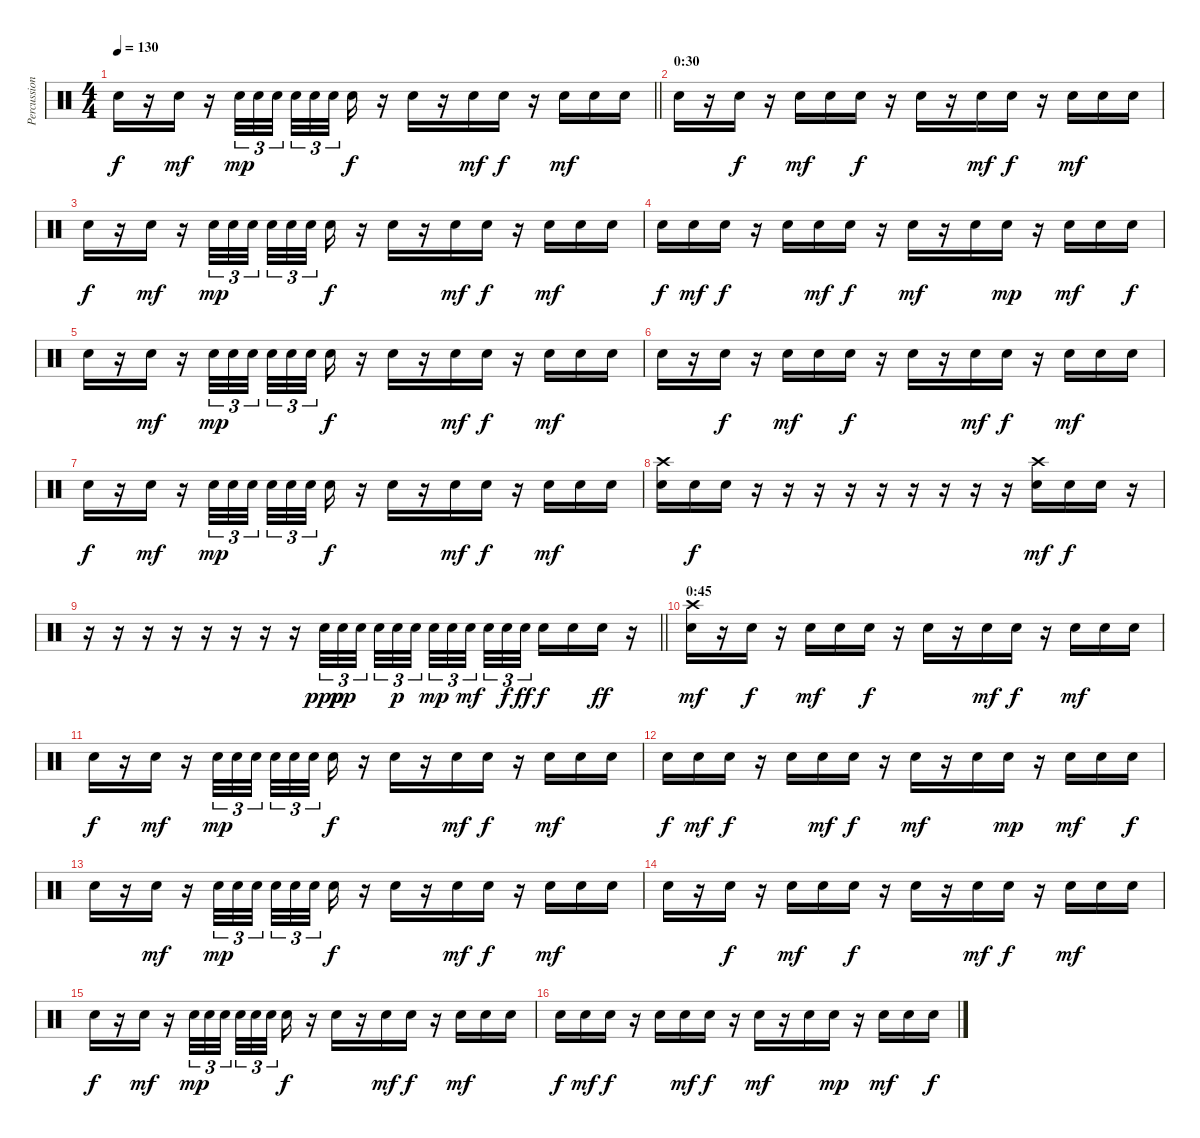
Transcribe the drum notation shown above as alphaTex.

\track ("Percussion" "Percussion") {instrument percussion}
\staff {score}
\articulation defaults
\ts (4 4)
\tempo 130
\clef neutral
\barLineRight lightlight
\ks c "Snare (hit) 2".16{dy f}
r.16 "Snare (hit) 2".16{dy mf} r.16 "Snare (hit) 2".32{tu (3 2) dy mp} "Snare (hit) 2".32{tu (3 2)} "Snare (hit) 2".32{tu (3 2) beam splitsecondary} "Snare (hit) 2".32{tu (3 2)} "Snare (hit) 2".32{tu (3 2)} "Snare (hit) 2".32{tu (3 2) beam splitsecondary} "Snare (hit) 2".16{dy f} r.16 "Snare (hit) 2".16 r.16 "Snare (hit) 2".16{dy mf} "Snare (hit) 2".16{dy f} r.16 "Snare (hit) 2".16{dy mf} "Snare (hit) 2".16 "Snare (hit) 2".16 |
\section ("" "0:30")
"Snare (hit) 2".16 r.16 "Snare (hit) 2".16{dy f} r.16 "Snare (hit) 2".16{dy mf} "Snare (hit) 2".16 "Snare (hit) 2".16{dy f} r.16 "Snare (hit) 2".16 r.16 "Snare (hit) 2".16{dy mf} "Snare (hit) 2".16{dy f} r.16 "Snare (hit) 2".16{dy mf} "Snare (hit) 2".16 "Snare (hit) 2".16 |
"Snare (hit) 2".16{dy f} r.16 "Snare (hit) 2".16{dy mf} r.16 "Snare (hit) 2".32{tu (3 2) dy mp} "Snare (hit) 2".32{tu (3 2)} "Snare (hit) 2".32{tu (3 2) beam splitsecondary} "Snare (hit) 2".32{tu (3 2)} "Snare (hit) 2".32{tu (3 2)} "Snare (hit) 2".32{tu (3 2) beam splitsecondary} "Snare (hit) 2".16{dy f} r.16 "Snare (hit) 2".16 r.16 "Snare (hit) 2".16{dy mf} "Snare (hit) 2".16{dy f} r.16 "Snare (hit) 2".16{dy mf} "Snare (hit) 2".16 "Snare (hit) 2".16 |
"Snare (hit) 2".16{dy f} "Snare (hit) 2".16{dy mf} "Snare (hit) 2".16{dy f} r.16 "Snare (hit) 2".16 "Snare (hit) 2".16{dy mf} "Snare (hit) 2".16{dy f} r.16 "Snare (hit) 2".16{dy mf} r.16 "Snare (hit) 2".16 "Snare (hit) 2".16{dy mp} r.16 "Snare (hit) 2".16{dy mf} "Snare (hit) 2".16 "Snare (hit) 2".16{dy f} |
"Snare (hit) 2".16 r.16 "Snare (hit) 2".16{dy mf} r.16 "Snare (hit) 2".32{tu (3 2) dy mp} "Snare (hit) 2".32{tu (3 2)} "Snare (hit) 2".32{tu (3 2) beam splitsecondary} "Snare (hit) 2".32{tu (3 2)} "Snare (hit) 2".32{tu (3 2)} "Snare (hit) 2".32{tu (3 2) beam splitsecondary} "Snare (hit) 2".16{dy f} r.16 "Snare (hit) 2".16 r.16 "Snare (hit) 2".16{dy mf} "Snare (hit) 2".16{dy f} r.16 "Snare (hit) 2".16{dy mf} "Snare (hit) 2".16 "Snare (hit) 2".16 |
"Snare (hit) 2".16 r.16 "Snare (hit) 2".16{dy f} r.16 "Snare (hit) 2".16{dy mf} "Snare (hit) 2".16 "Snare (hit) 2".16{dy f} r.16 "Snare (hit) 2".16 r.16 "Snare (hit) 2".16{dy mf} "Snare (hit) 2".16{dy f} r.16 "Snare (hit) 2".16{dy mf} "Snare (hit) 2".16 "Snare (hit) 2".16 |
"Snare (hit) 2".16{dy f} r.16 "Snare (hit) 2".16{dy mf} r.16 "Snare (hit) 2".32{tu (3 2) dy mp} "Snare (hit) 2".32{tu (3 2)} "Snare (hit) 2".32{tu (3 2) beam splitsecondary} "Snare (hit) 2".32{tu (3 2)} "Snare (hit) 2".32{tu (3 2)} "Snare (hit) 2".32{tu (3 2) beam splitsecondary} "Snare (hit) 2".16{dy f} r.16 "Snare (hit) 2".16 r.16 "Snare (hit) 2".16{dy mf} "Snare (hit) 2".16{dy f} r.16 "Snare (hit) 2".16{dy mf} "Snare (hit) 2".16 "Snare (hit) 2".16 |
("Crash high (hit)" "Snare (hit) 2").16 "Snare (hit) 2".16{dy f} "Snare (hit) 2".16 r.16 r.16 r.16 r.16 r.16 r.16 r.16 r.16 r.16 ("Crash high (hit)" "Snare (hit) 2").16{dy mf} "Snare (hit) 2".16{dy f} "Snare (hit) 2".16 r.16 |
\barLineRight lightlight
r.16 r.16 r.16 r.16 r.16 r.16 r.16 r.16 "Snare (hit) 2".32{tu (3 2) dy ppp} "Snare (hit) 2".32{tu (3 2) dy pp} "Snare (hit) 2".32{tu (3 2) beam splitsecondary} "Snare (hit) 2".32{tu (3 2)} "Snare (hit) 2".32{tu (3 2) dy p} "Snare (hit) 2".32{tu (3 2) beam splitsecondary} "Snare (hit) 2".32{tu (3 2) dy mp} "Snare (hit) 2".32{tu (3 2)} "Snare (hit) 2".32{tu (3 2) dy mf beam splitsecondary} "Snare (hit) 2".32{tu (3 2)} "Snare (hit) 2".32{tu (3 2) dy f} "Snare (hit) 2".32{tu (3 2) dy ff} "Snare (hit) 2".16{dy f} "Snare (hit) 2".16 "Snare (hit) 2".16{dy ff} r.16 |
\section ("" "0:45")
("Crash high (hit)" "Snare (hit) 2").16{dy mf} r.16 "Snare (hit) 2".16{dy f} r.16 "Snare (hit) 2".16{dy mf} "Snare (hit) 2".16 "Snare (hit) 2".16{dy f} r.16 "Snare (hit) 2".16 r.16 "Snare (hit) 2".16{dy mf} "Snare (hit) 2".16{dy f} r.16 "Snare (hit) 2".16{dy mf} "Snare (hit) 2".16 "Snare (hit) 2".16 |
"Snare (hit) 2".16{dy f} r.16 "Snare (hit) 2".16{dy mf} r.16 "Snare (hit) 2".32{tu (3 2) dy mp} "Snare (hit) 2".32{tu (3 2)} "Snare (hit) 2".32{tu (3 2) beam splitsecondary} "Snare (hit) 2".32{tu (3 2)} "Snare (hit) 2".32{tu (3 2)} "Snare (hit) 2".32{tu (3 2) beam splitsecondary} "Snare (hit) 2".16{dy f} r.16 "Snare (hit) 2".16 r.16 "Snare (hit) 2".16{dy mf} "Snare (hit) 2".16{dy f} r.16 "Snare (hit) 2".16{dy mf} "Snare (hit) 2".16 "Snare (hit) 2".16 |
"Snare (hit) 2".16{dy f} "Snare (hit) 2".16{dy mf} "Snare (hit) 2".16{dy f} r.16 "Snare (hit) 2".16 "Snare (hit) 2".16{dy mf} "Snare (hit) 2".16{dy f} r.16 "Snare (hit) 2".16{dy mf} r.16 "Snare (hit) 2".16 "Snare (hit) 2".16{dy mp} r.16 "Snare (hit) 2".16{dy mf} "Snare (hit) 2".16 "Snare (hit) 2".16{dy f} |
"Snare (hit) 2".16 r.16 "Snare (hit) 2".16{dy mf} r.16 "Snare (hit) 2".32{tu (3 2) dy mp} "Snare (hit) 2".32{tu (3 2)} "Snare (hit) 2".32{tu (3 2) beam splitsecondary} "Snare (hit) 2".32{tu (3 2)} "Snare (hit) 2".32{tu (3 2)} "Snare (hit) 2".32{tu (3 2) beam splitsecondary} "Snare (hit) 2".16{dy f} r.16 "Snare (hit) 2".16 r.16 "Snare (hit) 2".16{dy mf} "Snare (hit) 2".16{dy f} r.16 "Snare (hit) 2".16{dy mf} "Snare (hit) 2".16 "Snare (hit) 2".16 |
"Snare (hit) 2".16 r.16 "Snare (hit) 2".16{dy f} r.16 "Snare (hit) 2".16{dy mf} "Snare (hit) 2".16 "Snare (hit) 2".16{dy f} r.16 "Snare (hit) 2".16 r.16 "Snare (hit) 2".16{dy mf} "Snare (hit) 2".16{dy f} r.16 "Snare (hit) 2".16{dy mf} "Snare (hit) 2".16 "Snare (hit) 2".16 |
"Snare (hit) 2".16{dy f} r.16 "Snare (hit) 2".16{dy mf} r.16 "Snare (hit) 2".32{tu (3 2) dy mp} "Snare (hit) 2".32{tu (3 2)} "Snare (hit) 2".32{tu (3 2) beam splitsecondary} "Snare (hit) 2".32{tu (3 2)} "Snare (hit) 2".32{tu (3 2)} "Snare (hit) 2".32{tu (3 2) beam splitsecondary} "Snare (hit) 2".16{dy f} r.16 "Snare (hit) 2".16 r.16 "Snare (hit) 2".16{dy mf} "Snare (hit) 2".16{dy f} r.16 "Snare (hit) 2".16{dy mf} "Snare (hit) 2".16 "Snare (hit) 2".16 |
"Snare (hit) 2".16{dy f} "Snare (hit) 2".16{dy mf} "Snare (hit) 2".16{dy f} r.16 "Snare (hit) 2".16 "Snare (hit) 2".16{dy mf} "Snare (hit) 2".16{dy f} r.16 "Snare (hit) 2".16{dy mf} r.16 "Snare (hit) 2".16 "Snare (hit) 2".16{dy mp} r.16 "Snare (hit) 2".16{dy mf} "Snare (hit) 2".16 "Snare (hit) 2".16{dy f}
